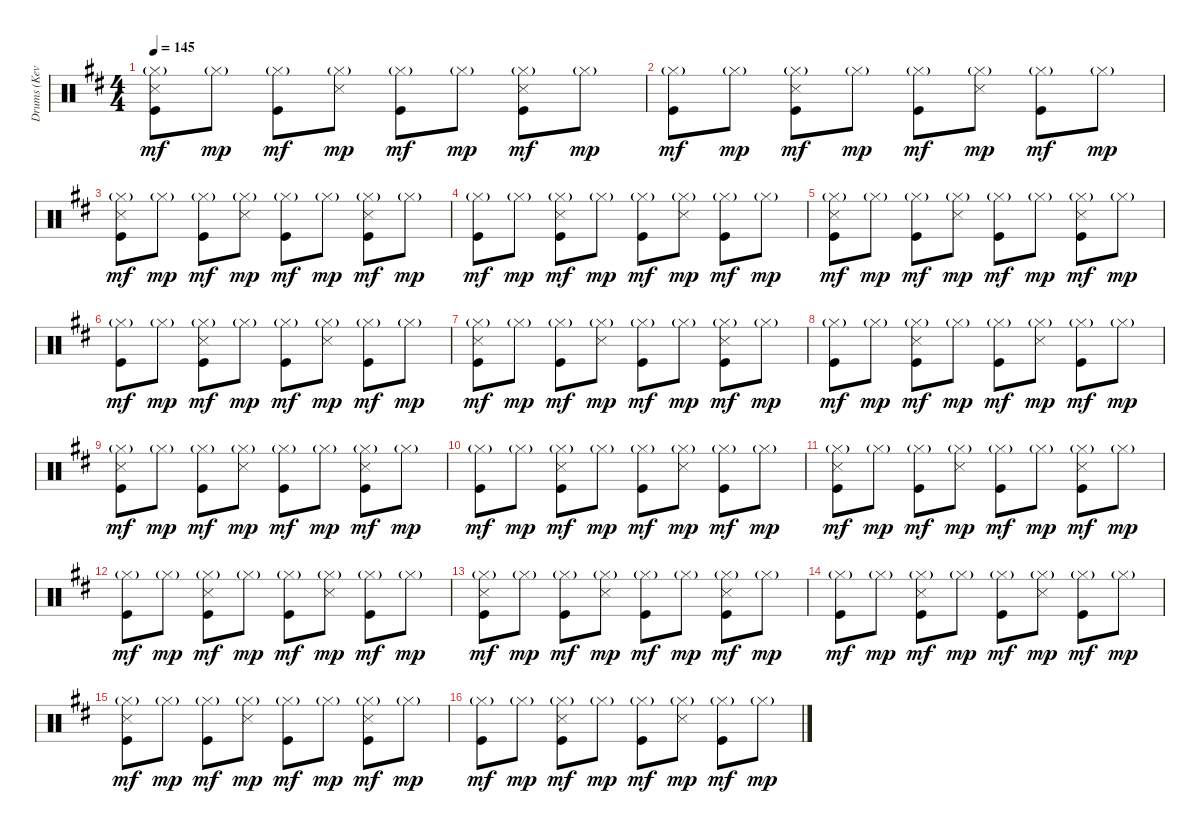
\track ("Drums (Kevin Haskins)" "Drums (Kev") {instrument percussion}
\staff {score}
\articulation defaults
\ts (4 4)
\tempo 145
\clef neutral
\ks d
("Hi-Hat (closed)"{g} "Snare (side stick) 3" "Kick (hit)").8{dy mf} "Hi-Hat (closed)"{g}.8{dy mp} ("Hi-Hat (closed)"{g} "Kick (hit)").8{dy mf} ("Hi-Hat (closed)"{g} "Snare (side stick) 3").8{dy mp} ("Hi-Hat (closed)"{g} "Kick (hit)").8{dy mf} "Hi-Hat (closed)"{g}.8{dy mp} ("Hi-Hat (closed)"{g} "Snare (side stick) 3" "Kick (hit)").8{dy mf} "Hi-Hat (closed)"{g}.8{dy mp} |
("Hi-Hat (closed)"{g} "Kick (hit)").8{dy mf} "Hi-Hat (closed)"{g}.8{dy mp} ("Hi-Hat (closed)"{g} "Snare (side stick) 3" "Kick (hit)").8{dy mf} "Hi-Hat (closed)"{g}.8{dy mp} ("Hi-Hat (closed)"{g} "Kick (hit)").8{dy mf} ("Hi-Hat (closed)"{g} "Snare (side stick) 3").8{dy mp} ("Hi-Hat (closed)"{g} "Kick (hit)").8{dy mf} "Hi-Hat (closed)"{g}.8{dy mp} |
("Hi-Hat (closed)"{g} "Snare (side stick) 3" "Kick (hit)").8{dy mf} "Hi-Hat (closed)"{g}.8{dy mp} ("Hi-Hat (closed)"{g} "Kick (hit)").8{dy mf} ("Hi-Hat (closed)"{g} "Snare (side stick) 3").8{dy mp} ("Hi-Hat (closed)"{g} "Kick (hit)").8{dy mf} "Hi-Hat (closed)"{g}.8{dy mp} ("Hi-Hat (closed)"{g} "Snare (side stick) 3" "Kick (hit)").8{dy mf} "Hi-Hat (closed)"{g}.8{dy mp} |
("Hi-Hat (closed)"{g} "Kick (hit)").8{dy mf} "Hi-Hat (closed)"{g}.8{dy mp} ("Hi-Hat (closed)"{g} "Snare (side stick) 3" "Kick (hit)").8{dy mf} "Hi-Hat (closed)"{g}.8{dy mp} ("Hi-Hat (closed)"{g} "Kick (hit)").8{dy mf} ("Hi-Hat (closed)"{g} "Snare (side stick) 3").8{dy mp} ("Hi-Hat (closed)"{g} "Kick (hit)").8{dy mf} "Hi-Hat (closed)"{g}.8{dy mp} |
("Hi-Hat (closed)"{g} "Snare (side stick) 3" "Kick (hit)").8{dy mf} "Hi-Hat (closed)"{g}.8{dy mp} ("Hi-Hat (closed)"{g} "Kick (hit)").8{dy mf} ("Hi-Hat (closed)"{g} "Snare (side stick) 3").8{dy mp} ("Hi-Hat (closed)"{g} "Kick (hit)").8{dy mf} "Hi-Hat (closed)"{g}.8{dy mp} ("Hi-Hat (closed)"{g} "Snare (side stick) 3" "Kick (hit)").8{dy mf} "Hi-Hat (closed)"{g}.8{dy mp} |
("Hi-Hat (closed)"{g} "Kick (hit)").8{dy mf} "Hi-Hat (closed)"{g}.8{dy mp} ("Hi-Hat (closed)"{g} "Snare (side stick) 3" "Kick (hit)").8{dy mf} "Hi-Hat (closed)"{g}.8{dy mp} ("Hi-Hat (closed)"{g} "Kick (hit)").8{dy mf} ("Hi-Hat (closed)"{g} "Snare (side stick) 3").8{dy mp} ("Hi-Hat (closed)"{g} "Kick (hit)").8{dy mf} "Hi-Hat (closed)"{g}.8{dy mp} |
("Hi-Hat (closed)"{g} "Snare (side stick) 3" "Kick (hit)").8{dy mf} "Hi-Hat (closed)"{g}.8{dy mp} ("Hi-Hat (closed)"{g} "Kick (hit)").8{dy mf} ("Hi-Hat (closed)"{g} "Snare (side stick) 3").8{dy mp} ("Hi-Hat (closed)"{g} "Kick (hit)").8{dy mf} "Hi-Hat (closed)"{g}.8{dy mp} ("Hi-Hat (closed)"{g} "Snare (side stick) 3" "Kick (hit)").8{dy mf} "Hi-Hat (closed)"{g}.8{dy mp} |
("Hi-Hat (closed)"{g} "Kick (hit)").8{dy mf} "Hi-Hat (closed)"{g}.8{dy mp} ("Hi-Hat (closed)"{g} "Snare (side stick) 3" "Kick (hit)").8{dy mf} "Hi-Hat (closed)"{g}.8{dy mp} ("Hi-Hat (closed)"{g} "Kick (hit)").8{dy mf} ("Hi-Hat (closed)"{g} "Snare (side stick) 3").8{dy mp} ("Hi-Hat (closed)"{g} "Kick (hit)").8{dy mf} "Hi-Hat (closed)"{g}.8{dy mp} |
("Hi-Hat (closed)"{g} "Snare (side stick) 3" "Kick (hit)").8{dy mf} "Hi-Hat (closed)"{g}.8{dy mp} ("Hi-Hat (closed)"{g} "Kick (hit)").8{dy mf} ("Hi-Hat (closed)"{g} "Snare (side stick) 3").8{dy mp} ("Hi-Hat (closed)"{g} "Kick (hit)").8{dy mf} "Hi-Hat (closed)"{g}.8{dy mp} ("Hi-Hat (closed)"{g} "Snare (side stick) 3" "Kick (hit)").8{dy mf} "Hi-Hat (closed)"{g}.8{dy mp} |
("Hi-Hat (closed)"{g} "Kick (hit)").8{dy mf} "Hi-Hat (closed)"{g}.8{dy mp} ("Hi-Hat (closed)"{g} "Snare (side stick) 3" "Kick (hit)").8{dy mf} "Hi-Hat (closed)"{g}.8{dy mp} ("Hi-Hat (closed)"{g} "Kick (hit)").8{dy mf} ("Hi-Hat (closed)"{g} "Snare (side stick) 3").8{dy mp} ("Hi-Hat (closed)"{g} "Kick (hit)").8{dy mf} "Hi-Hat (closed)"{g}.8{dy mp} |
("Hi-Hat (closed)"{g} "Snare (side stick) 3" "Kick (hit)").8{dy mf} "Hi-Hat (closed)"{g}.8{dy mp} ("Hi-Hat (closed)"{g} "Kick (hit)").8{dy mf} ("Hi-Hat (closed)"{g} "Snare (side stick) 3").8{dy mp} ("Hi-Hat (closed)"{g} "Kick (hit)").8{dy mf} "Hi-Hat (closed)"{g}.8{dy mp} ("Hi-Hat (closed)"{g} "Snare (side stick) 3" "Kick (hit)").8{dy mf} "Hi-Hat (closed)"{g}.8{dy mp} |
("Hi-Hat (closed)"{g} "Kick (hit)").8{dy mf} "Hi-Hat (closed)"{g}.8{dy mp} ("Hi-Hat (closed)"{g} "Snare (side stick) 3" "Kick (hit)").8{dy mf} "Hi-Hat (closed)"{g}.8{dy mp} ("Hi-Hat (closed)"{g} "Kick (hit)").8{dy mf} ("Hi-Hat (closed)"{g} "Snare (side stick) 3").8{dy mp} ("Hi-Hat (closed)"{g} "Kick (hit)").8{dy mf} "Hi-Hat (closed)"{g}.8{dy mp} |
("Hi-Hat (closed)"{g} "Snare (side stick) 3" "Kick (hit)").8{dy mf} "Hi-Hat (closed)"{g}.8{dy mp} ("Hi-Hat (closed)"{g} "Kick (hit)").8{dy mf} ("Hi-Hat (closed)"{g} "Snare (side stick) 3").8{dy mp} ("Hi-Hat (closed)"{g} "Kick (hit)").8{dy mf} "Hi-Hat (closed)"{g}.8{dy mp} ("Hi-Hat (closed)"{g} "Snare (side stick) 3" "Kick (hit)").8{dy mf} "Hi-Hat (closed)"{g}.8{dy mp} |
("Hi-Hat (closed)"{g} "Kick (hit)").8{dy mf} "Hi-Hat (closed)"{g}.8{dy mp} ("Hi-Hat (closed)"{g} "Snare (side stick) 3" "Kick (hit)").8{dy mf} "Hi-Hat (closed)"{g}.8{dy mp} ("Hi-Hat (closed)"{g} "Kick (hit)").8{dy mf} ("Hi-Hat (closed)"{g} "Snare (side stick) 3").8{dy mp} ("Hi-Hat (closed)"{g} "Kick (hit)").8{dy mf} "Hi-Hat (closed)"{g}.8{dy mp} |
("Hi-Hat (closed)"{g} "Snare (side stick) 3" "Kick (hit)").8{dy mf} "Hi-Hat (closed)"{g}.8{dy mp} ("Hi-Hat (closed)"{g} "Kick (hit)").8{dy mf} ("Hi-Hat (closed)"{g} "Snare (side stick) 3").8{dy mp} ("Hi-Hat (closed)"{g} "Kick (hit)").8{dy mf} "Hi-Hat (closed)"{g}.8{dy mp} ("Hi-Hat (closed)"{g} "Snare (side stick) 3" "Kick (hit)").8{dy mf} "Hi-Hat (closed)"{g}.8{dy mp} |
("Hi-Hat (closed)"{g} "Kick (hit)").8{dy mf} "Hi-Hat (closed)"{g}.8{dy mp} ("Hi-Hat (closed)"{g} "Snare (side stick) 3" "Kick (hit)").8{dy mf} "Hi-Hat (closed)"{g}.8{dy mp} ("Hi-Hat (closed)"{g} "Kick (hit)").8{dy mf} ("Hi-Hat (closed)"{g} "Snare (side stick) 3").8{dy mp} ("Hi-Hat (closed)"{g} "Kick (hit)").8{dy mf} "Hi-Hat (closed)"{g}.8{dy mp}
